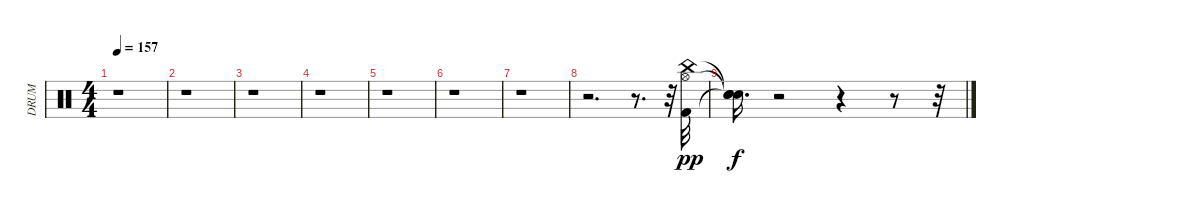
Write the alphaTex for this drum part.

\track ("DRUM" "DRUM") {instrument percussion}
\staff {score}
\articulation defaults
\ts (4 4)
\tempo 157
\clef neutral
\ks c
r.1{dy f} |
r.1 |
r.1 |
r.1 |
r.1 |
r.1 |
r.1 |
r.2{d} r.8{d} r.32 ("Hi-Hat (open)" "China (hit)" "Kick (hit) 2").32{dy pp} |
("Snare (hit)"{t} "Snare (hit)"{t} "Snare (hit)"{t}).16{d dy f} r.2 r.4 r.8 r.32
